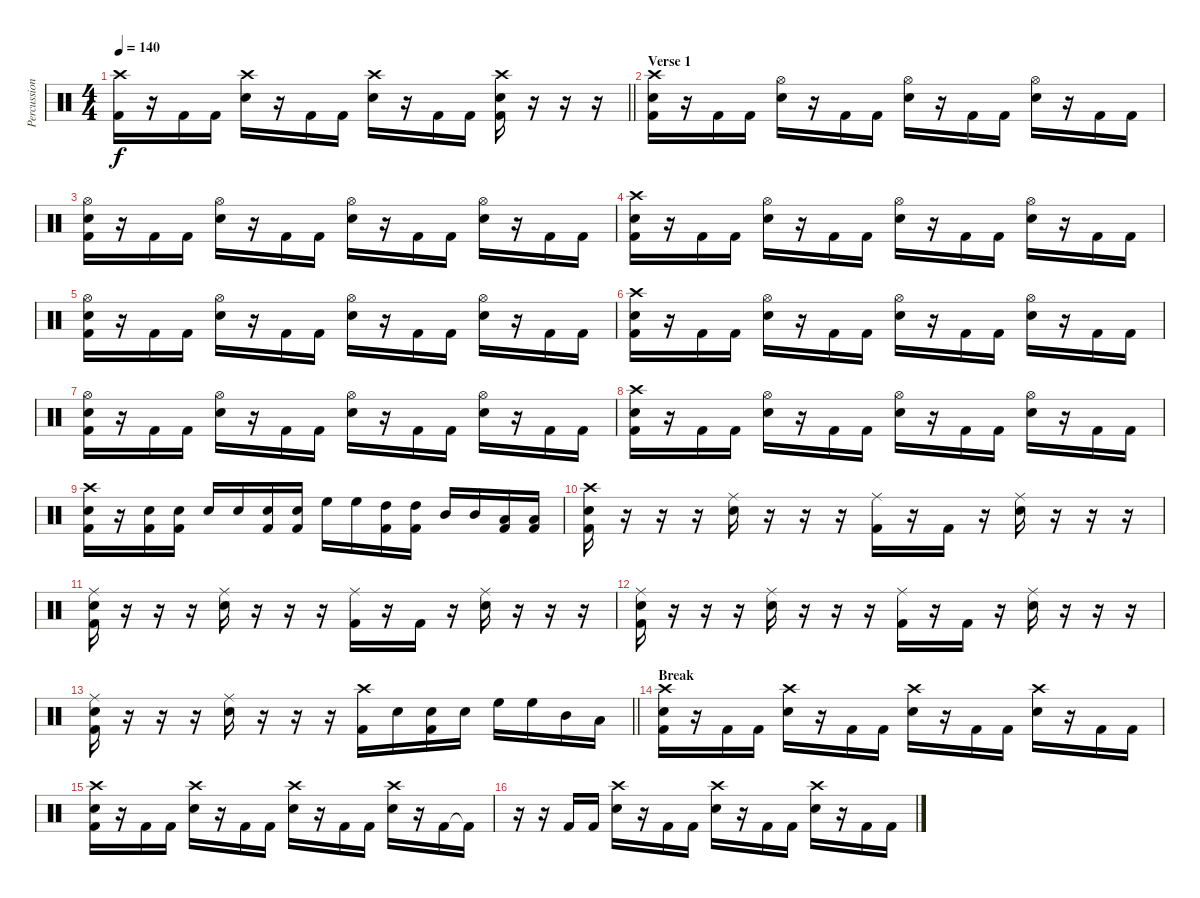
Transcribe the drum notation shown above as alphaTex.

\track ("Percussion" "Percussion") {instrument percussion}
\staff {score}
\articulation defaults
\ts (4 4)
\tempo 140
\clef neutral
\barLineRight lightlight
\ks c
("Crash high (hit)" "Kick (hit) 2").16{dy f} r.16 "Kick (hit) 2".16 "Kick (hit) 2".16 ("Crash high (hit)" "Snare (hit) 2").16 r.16 "Kick (hit) 2".16 "Kick (hit) 2".16 ("Crash high (hit)" "Snare (hit) 2").16 r.16 "Kick (hit) 2".16 "Kick (hit) 2".16 ("Crash high (hit)" "Snare (hit) 2" "Kick (hit) 2").16 r.16 r.16 r.16 |
\section ("" "Verse 1")
("Crash high (hit)" "Snare (hit) 2" "Kick (hit) 2").16 r.16 "Kick (hit) 2".16 "Kick (hit) 2".16 ("Hi-Hat (open)" "Snare (hit) 2").16 r.16 "Kick (hit) 2".16 "Kick (hit) 2".16 ("Hi-Hat (open)" "Snare (hit) 2").16 r.16 "Kick (hit) 2".16 "Kick (hit) 2".16 ("Hi-Hat (open)" "Snare (hit) 2").16 r.16 "Kick (hit) 2".16 "Kick (hit) 2".16 |
("Hi-Hat (open)" "Snare (hit) 2" "Kick (hit) 2").16 r.16 "Kick (hit) 2".16 "Kick (hit) 2".16 ("Hi-Hat (open)" "Snare (hit) 2").16 r.16 "Kick (hit) 2".16 "Kick (hit) 2".16 ("Hi-Hat (open)" "Snare (hit) 2").16 r.16 "Kick (hit) 2".16 "Kick (hit) 2".16 ("Hi-Hat (open)" "Snare (hit) 2").16 r.16 "Kick (hit) 2".16 "Kick (hit) 2".16 |
("Crash high (hit)" "Snare (hit) 2" "Kick (hit) 2").16 r.16 "Kick (hit) 2".16 "Kick (hit) 2".16 ("Hi-Hat (open)" "Snare (hit) 2").16 r.16 "Kick (hit) 2".16 "Kick (hit) 2".16 ("Hi-Hat (open)" "Snare (hit) 2").16 r.16 "Kick (hit) 2".16 "Kick (hit) 2".16 ("Hi-Hat (open)" "Snare (hit) 2").16 r.16 "Kick (hit) 2".16 "Kick (hit) 2".16 |
("Hi-Hat (open)" "Snare (hit) 2" "Kick (hit) 2").16 r.16 "Kick (hit) 2".16 "Kick (hit) 2".16 ("Hi-Hat (open)" "Snare (hit) 2").16 r.16 "Kick (hit) 2".16 "Kick (hit) 2".16 ("Hi-Hat (open)" "Snare (hit) 2").16 r.16 "Kick (hit) 2".16 "Kick (hit) 2".16 ("Hi-Hat (open)" "Snare (hit) 2").16 r.16 "Kick (hit) 2".16 "Kick (hit) 2".16 |
("Crash high (hit)" "Snare (hit) 2" "Kick (hit) 2").16 r.16 "Kick (hit) 2".16 "Kick (hit) 2".16 ("Hi-Hat (open)" "Snare (hit) 2").16 r.16 "Kick (hit) 2".16 "Kick (hit) 2".16 ("Hi-Hat (open)" "Snare (hit) 2").16 r.16 "Kick (hit) 2".16 "Kick (hit) 2".16 ("Hi-Hat (open)" "Snare (hit) 2").16 r.16 "Kick (hit) 2".16 "Kick (hit) 2".16 |
("Hi-Hat (open)" "Snare (hit) 2" "Kick (hit) 2").16 r.16 "Kick (hit) 2".16 "Kick (hit) 2".16 ("Hi-Hat (open)" "Snare (hit) 2").16 r.16 "Kick (hit) 2".16 "Kick (hit) 2".16 ("Hi-Hat (open)" "Snare (hit) 2").16 r.16 "Kick (hit) 2".16 "Kick (hit) 2".16 ("Hi-Hat (open)" "Snare (hit) 2").16 r.16 "Kick (hit) 2".16 "Kick (hit) 2".16 |
("Crash high (hit)" "Snare (hit) 2" "Kick (hit) 2").16 r.16 "Kick (hit) 2".16 "Kick (hit) 2".16 ("Hi-Hat (open)" "Snare (hit) 2").16 r.16 "Kick (hit) 2".16 "Kick (hit) 2".16 ("Hi-Hat (open)" "Snare (hit) 2").16 r.16 "Kick (hit) 2".16 "Kick (hit) 2".16 ("Hi-Hat (open)" "Snare (hit) 2").16 r.16 "Kick (hit) 2".16 "Kick (hit) 2".16 |
("Crash high (hit)" "Snare (hit) 2" "Kick (hit) 2").16 r.16 ("Snare (hit) 2" "Kick (hit) 2").16 ("Snare (hit) 2" "Kick (hit) 2").16 "Snare (hit) 2".16 "Snare (hit) 2".16 ("Snare (hit) 2" "Kick (hit) 2").16 ("Snare (hit) 2" "Kick (hit) 2").16 "High Floor Tom (hit)".16 "High Floor Tom (hit)".16 ("High Tom (hit)" "Kick (hit) 2").16 ("High Tom (hit)" "Kick (hit) 2").16 "Mid Tom (hit)".16 "Mid Tom (hit)".16 ("Low Tom (hit)" "Kick (hit) 2").16 ("Low Tom (hit)" "Kick (hit) 2").16 |
("Crash high (hit)" "Snare (hit) 2" "Kick (hit) 2").16 r.16 r.16 r.16 ("Ride (middle)" "Snare (hit) 2").16 r.16 r.16 r.16 ("Ride (middle)" "Kick (hit) 2").16 r.16 "Kick (hit) 2".16 r.16 ("Ride (middle)" "Snare (hit) 2").16 r.16 r.16 r.16 |
("Ride (middle)" "Snare (hit) 2" "Kick (hit) 2").16 r.16 r.16 r.16 ("Ride (middle)" "Snare (hit) 2").16 r.16 r.16 r.16 ("Ride (middle)" "Kick (hit) 2").16 r.16 "Kick (hit) 2".16 r.16 ("Ride (middle)" "Snare (hit) 2").16 r.16 r.16 r.16 |
("Ride (middle)" "Snare (hit) 2" "Kick (hit) 2").16 r.16 r.16 r.16 ("Ride (middle)" "Snare (hit) 2").16 r.16 r.16 r.16 ("Ride (middle)" "Kick (hit) 2").16 r.16 "Kick (hit) 2".16 r.16 ("Ride (middle)" "Snare (hit) 2").16 r.16 r.16 r.16 |
\barLineRight lightlight
("Ride (middle)" "Snare (hit) 2" "Kick (hit) 2").16 r.16 r.16 r.16 ("Ride (middle)" "Snare (hit) 2").16 r.16 r.16 r.16 ("Crash high (hit)" "Kick (hit) 2").16 "Snare (hit) 2".16 ("Snare (hit) 2" "Kick (hit) 2").16 "Snare (hit) 2".16 "High Floor Tom (hit)".16 "High Floor Tom (hit)".16 "Mid Tom (hit)".16 "Low Tom (hit)".16 |
\section ("" "Break")
("Crash high (hit)" "Snare (hit) 2" "Kick (hit) 2").16 r.16 "Kick (hit) 2".16 "Kick (hit) 2".16 ("Crash high (hit)" "Snare (hit) 2").16 r.16 "Kick (hit) 2".16 "Kick (hit) 2".16 ("Crash high (hit)" "Snare (hit) 2").16 r.16 "Kick (hit) 2".16 "Kick (hit) 2".16 ("Crash high (hit)" "Snare (hit) 2").16 r.16 "Kick (hit) 2".16 "Kick (hit) 2".16 |
("Crash high (hit)" "Snare (hit) 2" "Kick (hit) 2").16 r.16 "Kick (hit) 2".16 "Kick (hit) 2".16 ("Crash high (hit)" "Snare (hit) 2").16 r.16 "Kick (hit) 2".16 "Kick (hit) 2".16 ("Crash high (hit)" "Snare (hit) 2").16 r.16 "Kick (hit) 2".16 "Kick (hit) 2".16 ("Crash high (hit)" "Snare (hit) 2").16 r.16 "Kick (hit) 2".16 "Kick (hit) 2"{t}.16 |
r.16 r.16 "Kick (hit) 2".16 "Kick (hit) 2".16 ("Crash high (hit)" "Snare (hit) 2").16 r.16 "Kick (hit) 2".16 "Kick (hit) 2".16 ("Crash high (hit)" "Snare (hit) 2").16 r.16 "Kick (hit) 2".16 "Kick (hit) 2".16 ("Crash high (hit)" "Snare (hit) 2").16 r.16 "Kick (hit) 2".16 "Kick (hit) 2".16
